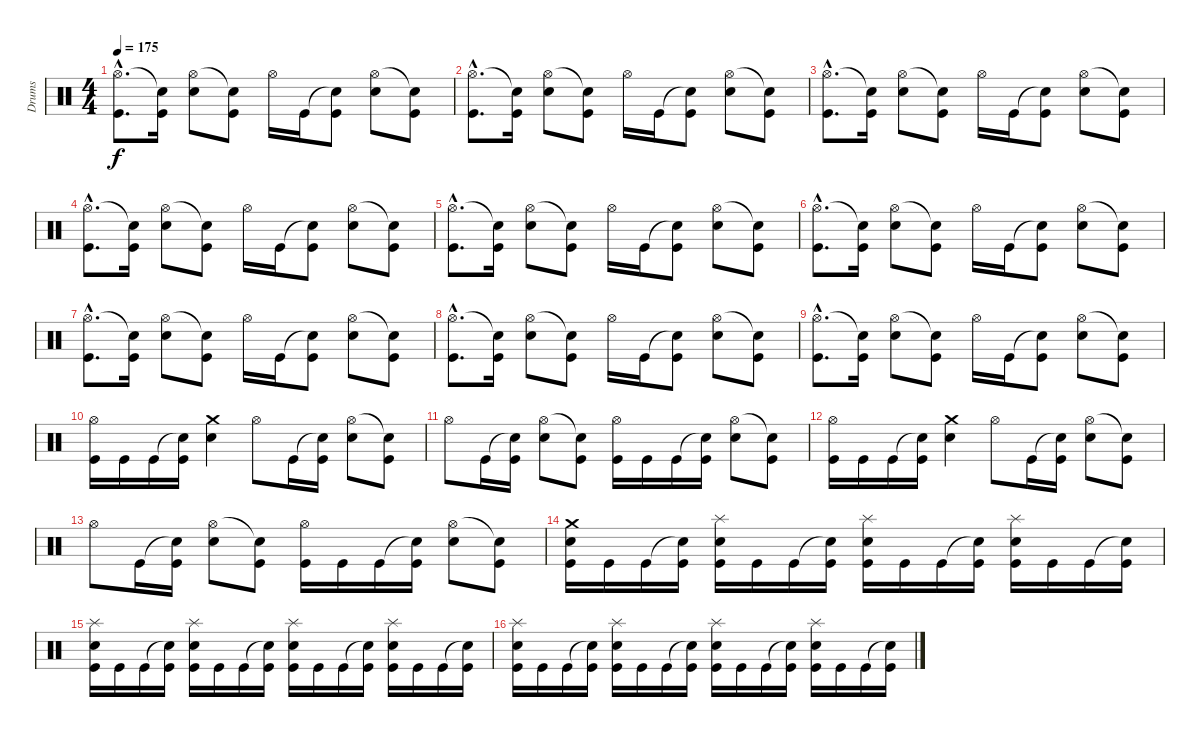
\track ("Drums" "Drums") {instrument percussion}
\staff {score}
\articulation defaults
\ts (4 4)
\tempo 175
\clef neutral
\ks c
("Hi-Hat (open)"{hac} "Kick (hit)"{hac}).8{d dy f} ("Snare (hit)"{t} "Kick (hit)").16 ("Hi-Hat (open)" "Electric Snare (hit)").8 ("Snare (hit)"{t} "Kick (hit)").8 "Hi-Hat (open)".16 "Kick (hit)".16 ("Snare (hit)"{t} "Kick (hit)").8 ("Hi-Hat (open)" "Electric Snare (hit)").8 ("Snare (hit)"{t} "Kick (hit)").8 |
("Hi-Hat (open)"{hac} "Kick (hit)"{hac}).8{d} ("Snare (hit)"{t} "Kick (hit)").16 ("Hi-Hat (open)" "Electric Snare (hit)").8 ("Snare (hit)"{t} "Kick (hit)").8 "Hi-Hat (open)".16 "Kick (hit)".16 ("Snare (hit)"{t} "Kick (hit)").8 ("Hi-Hat (open)" "Electric Snare (hit)").8 ("Snare (hit)"{t} "Kick (hit)").8 |
("Hi-Hat (open)"{hac} "Kick (hit)"{hac}).8{d} ("Snare (hit)"{t} "Kick (hit)").16 ("Hi-Hat (open)" "Electric Snare (hit)").8 ("Snare (hit)"{t} "Kick (hit)").8 "Hi-Hat (open)".16 "Kick (hit)".16 ("Snare (hit)"{t} "Kick (hit)").8 ("Hi-Hat (open)" "Electric Snare (hit)").8 ("Snare (hit)"{t} "Kick (hit)").8 |
("Hi-Hat (open)"{hac} "Kick (hit)"{hac}).8{d} ("Snare (hit)"{t} "Kick (hit)").16 ("Hi-Hat (open)" "Electric Snare (hit)").8 ("Snare (hit)"{t} "Kick (hit)").8 "Hi-Hat (open)".16 "Kick (hit)".16 ("Snare (hit)"{t} "Kick (hit)").8 ("Hi-Hat (open)" "Electric Snare (hit)").8 ("Snare (hit)"{t} "Kick (hit)").8 |
("Hi-Hat (open)"{hac} "Kick (hit)"{hac}).8{d} ("Snare (hit)"{t} "Kick (hit)").16 ("Hi-Hat (open)" "Electric Snare (hit)").8 ("Snare (hit)"{t} "Kick (hit)").8 "Hi-Hat (open)".16 "Kick (hit)".16 ("Snare (hit)"{t} "Kick (hit)").8 ("Hi-Hat (open)" "Electric Snare (hit)").8 ("Snare (hit)"{t} "Kick (hit)").8 |
("Hi-Hat (open)"{hac} "Kick (hit)"{hac}).8{d} ("Snare (hit)"{t} "Kick (hit)").16 ("Hi-Hat (open)" "Electric Snare (hit)").8 ("Snare (hit)"{t} "Kick (hit)").8 "Hi-Hat (open)".16 "Kick (hit)".16 ("Snare (hit)"{t} "Kick (hit)").8 ("Hi-Hat (open)" "Electric Snare (hit)").8 ("Snare (hit)"{t} "Kick (hit)").8 |
("Hi-Hat (open)"{hac} "Kick (hit)"{hac}).8{d} ("Snare (hit)"{t} "Kick (hit)").16 ("Hi-Hat (open)" "Electric Snare (hit)").8 ("Snare (hit)"{t} "Kick (hit)").8 "Hi-Hat (open)".16 "Kick (hit)".16 ("Snare (hit)"{t} "Kick (hit)").8 ("Hi-Hat (open)" "Electric Snare (hit)").8 ("Snare (hit)"{t} "Kick (hit)").8 |
("Hi-Hat (open)"{hac} "Kick (hit)"{hac}).8{d} ("Snare (hit)"{t} "Kick (hit)").16 ("Hi-Hat (open)" "Electric Snare (hit)").8 ("Snare (hit)"{t} "Kick (hit)").8 "Hi-Hat (open)".16 "Kick (hit)".16 ("Snare (hit)"{t} "Kick (hit)").8 ("Hi-Hat (open)" "Electric Snare (hit)").8 ("Snare (hit)"{t} "Kick (hit)").8 |
("Hi-Hat (open)"{hac} "Kick (hit)"{hac}).8{d} ("Snare (hit)"{t} "Kick (hit)").16 ("Hi-Hat (open)" "Electric Snare (hit)").8 ("Snare (hit)"{t} "Kick (hit)").8 "Hi-Hat (open)".16 "Kick (hit)".16 ("Snare (hit)"{t} "Kick (hit)").8 ("Hi-Hat (open)" "Electric Snare (hit)").8 ("Snare (hit)"{t} "Kick (hit)").8 |
("Hi-Hat (open)" "Kick (hit)").16 "Kick (hit)".16 "Kick (hit)".16 ("Snare (hit)"{t} "Kick (hit)").16 ("Crash medium (hit)" "Electric Snare (hit)").4 "Hi-Hat (open)".8 "Kick (hit)".16 ("Snare (hit)"{t} "Kick (hit)").16 ("Hi-Hat (open)" "Electric Snare (hit)").8 ("Snare (hit)"{t} "Kick (hit)").8 |
"Hi-Hat (open)".8 "Kick (hit)".16 ("Snare (hit)"{t} "Kick (hit)").16 ("Hi-Hat (open)" "Electric Snare (hit)").8 ("Snare (hit)"{t} "Kick (hit)").8 ("Hi-Hat (open)" "Kick (hit)").16 "Kick (hit)".16 "Kick (hit)".16 ("Snare (hit)"{t} "Kick (hit)").16 ("Hi-Hat (open)" "Electric Snare (hit)").8 ("Snare (hit)"{t} "Kick (hit)").8 |
("Hi-Hat (open)" "Kick (hit)").16 "Kick (hit)".16 "Kick (hit)".16 ("Snare (hit)"{t} "Kick (hit)").16 ("Crash medium (hit)" "Electric Snare (hit)").4 "Hi-Hat (open)".8 "Kick (hit)".16 ("Snare (hit)"{t} "Kick (hit)").16 ("Hi-Hat (open)" "Electric Snare (hit)").8 ("Snare (hit)"{t} "Kick (hit)").8 |
"Hi-Hat (open)".8 "Kick (hit)".16 ("Snare (hit)"{t} "Kick (hit)").16 ("Hi-Hat (open)" "Electric Snare (hit)").8 ("Snare (hit)"{t} "Kick (hit)").8 ("Hi-Hat (open)" "Kick (hit)").16 "Kick (hit)".16 "Kick (hit)".16 ("Snare (hit)"{t} "Kick (hit)").16 ("Hi-Hat (open)" "Electric Snare (hit)").8 ("Snare (hit)"{t} "Kick (hit)").8 |
("Crash medium (hit)" "Electric Snare (hit)" "Kick (hit)").16 "Kick (hit)".16 "Kick (hit)".16 ("Snare (hit)"{t} "Kick (hit)").16 ("Splash (hit)" "Electric Snare (hit)" "Kick (hit)").16 "Kick (hit)".16 "Kick (hit)".16 ("Snare (hit)"{t} "Kick (hit)").16 ("Splash (hit)" "Electric Snare (hit)" "Kick (hit)").16 "Kick (hit)".16 "Kick (hit)".16 ("Snare (hit)"{t} "Kick (hit)").16 ("Splash (hit)" "Electric Snare (hit)" "Kick (hit)").16 "Kick (hit)".16 "Kick (hit)".16 ("Snare (hit)"{t} "Kick (hit)").16 |
("Splash (hit)" "Electric Snare (hit)" "Kick (hit)").16 "Kick (hit)".16 "Kick (hit)".16 ("Snare (hit)"{t} "Kick (hit)").16 ("Splash (hit)" "Electric Snare (hit)" "Kick (hit)").16 "Kick (hit)".16 "Kick (hit)".16 ("Snare (hit)"{t} "Kick (hit)").16 ("Splash (hit)" "Electric Snare (hit)" "Kick (hit)").16 "Kick (hit)".16 "Kick (hit)".16 ("Snare (hit)"{t} "Kick (hit)").16 ("Splash (hit)" "Electric Snare (hit)" "Kick (hit)").16 "Kick (hit)".16 "Kick (hit)".16 ("Snare (hit)"{t} "Kick (hit)").16 |
("Splash (hit)" "Electric Snare (hit)" "Kick (hit)").16 "Kick (hit)".16 "Kick (hit)".16 ("Snare (hit)"{t} "Kick (hit)").16 ("Splash (hit)" "Electric Snare (hit)" "Kick (hit)").16 "Kick (hit)".16 "Kick (hit)".16 ("Snare (hit)"{t} "Kick (hit)").16 ("Splash (hit)" "Electric Snare (hit)" "Kick (hit)").16 "Kick (hit)".16 "Kick (hit)".16 ("Snare (hit)"{t} "Kick (hit)").16 ("Splash (hit)" "Electric Snare (hit)" "Kick (hit)").16 "Kick (hit)".16 "Kick (hit)".16 ("Snare (hit)"{t} "Kick (hit)").16
